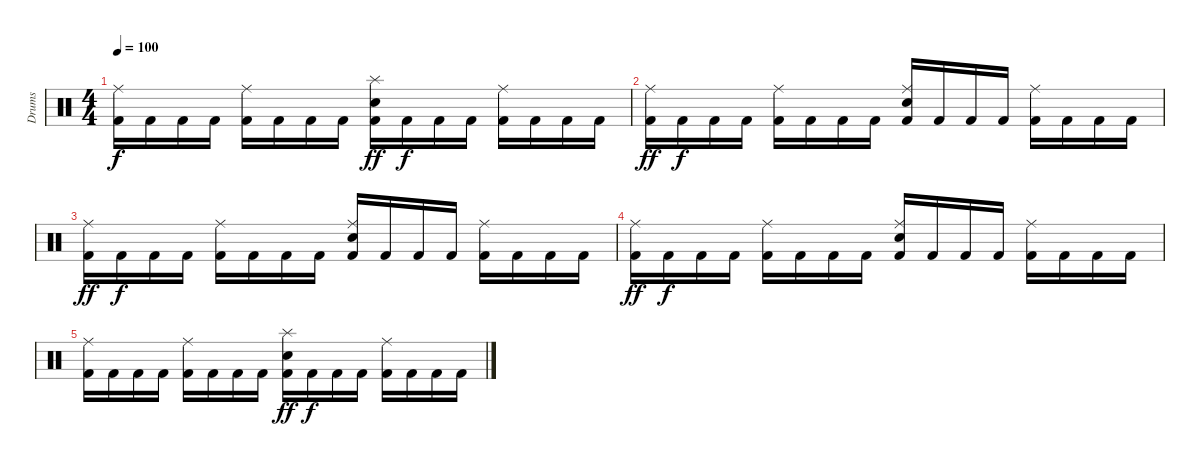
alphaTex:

\track ("Drums" "Drums") {instrument percussion}
\staff {score}
\articulation defaults
\ts (4 4)
\tempo 100
\clef neutral
\ks c
("Kick (hit) 2" "Ride (middle)").16{dy f} "Kick (hit) 2".16 "Kick (hit) 2".16 "Kick (hit) 2".16 ("Kick (hit) 2" "Ride (middle)").16 "Kick (hit) 2".16 "Kick (hit) 2".16 "Kick (hit) 2".16 ("Kick (hit) 2" "Electric Snare (hit)" "Splash (hit)").16{dy ff} "Kick (hit) 2".16{dy f} "Kick (hit) 2".16 "Kick (hit) 2".16 ("Kick (hit) 2" "Ride (middle)").16 "Kick (hit) 2".16 "Kick (hit) 2".16 "Kick (hit) 2".16 |
("Kick (hit) 2" "Ride (middle)").16{dy ff} "Kick (hit) 2".16{dy f} "Kick (hit) 2".16 "Kick (hit) 2".16 ("Kick (hit) 2" "Ride (middle)").16 "Kick (hit) 2".16 "Kick (hit) 2".16 "Kick (hit) 2".16 ("Kick (hit) 2" "Electric Snare (hit)" "Ride (middle)").16 "Kick (hit) 2".16 "Kick (hit) 2".16 "Kick (hit) 2".16 ("Kick (hit) 2" "Ride (middle)").16 "Kick (hit) 2".16 "Kick (hit) 2".16 "Kick (hit) 2".16 |
("Kick (hit) 2" "Ride (middle)").16{dy ff} "Kick (hit) 2".16{dy f} "Kick (hit) 2".16 "Kick (hit) 2".16 ("Kick (hit) 2" "Ride (middle)").16 "Kick (hit) 2".16 "Kick (hit) 2".16 "Kick (hit) 2".16 ("Kick (hit) 2" "Electric Snare (hit)" "Ride (middle)").16 "Kick (hit) 2".16 "Kick (hit) 2".16 "Kick (hit) 2".16 ("Kick (hit) 2" "Ride (middle)").16 "Kick (hit) 2".16 "Kick (hit) 2".16 "Kick (hit) 2".16 |
("Kick (hit) 2" "Ride (middle)").16{dy ff} "Kick (hit) 2".16{dy f} "Kick (hit) 2".16 "Kick (hit) 2".16 ("Kick (hit) 2" "Ride (middle)").16 "Kick (hit) 2".16 "Kick (hit) 2".16 "Kick (hit) 2".16 ("Kick (hit) 2" "Electric Snare (hit)" "Ride (middle)").16 "Kick (hit) 2".16 "Kick (hit) 2".16 "Kick (hit) 2".16 ("Kick (hit) 2" "Ride (middle)").16 "Kick (hit) 2".16 "Kick (hit) 2".16 "Kick (hit) 2".16 |
("Kick (hit) 2" "Ride (middle)").16 "Kick (hit) 2".16 "Kick (hit) 2".16 "Kick (hit) 2".16 ("Kick (hit) 2" "Ride (middle)").16 "Kick (hit) 2".16 "Kick (hit) 2".16 "Kick (hit) 2".16 ("Kick (hit) 2" "Electric Snare (hit)" "Splash (hit)").16{dy ff} "Kick (hit) 2".16{dy f} "Kick (hit) 2".16 "Kick (hit) 2".16 ("Kick (hit) 2" "Ride (middle)").16 "Kick (hit) 2".16 "Kick (hit) 2".16 "Kick (hit) 2".16
